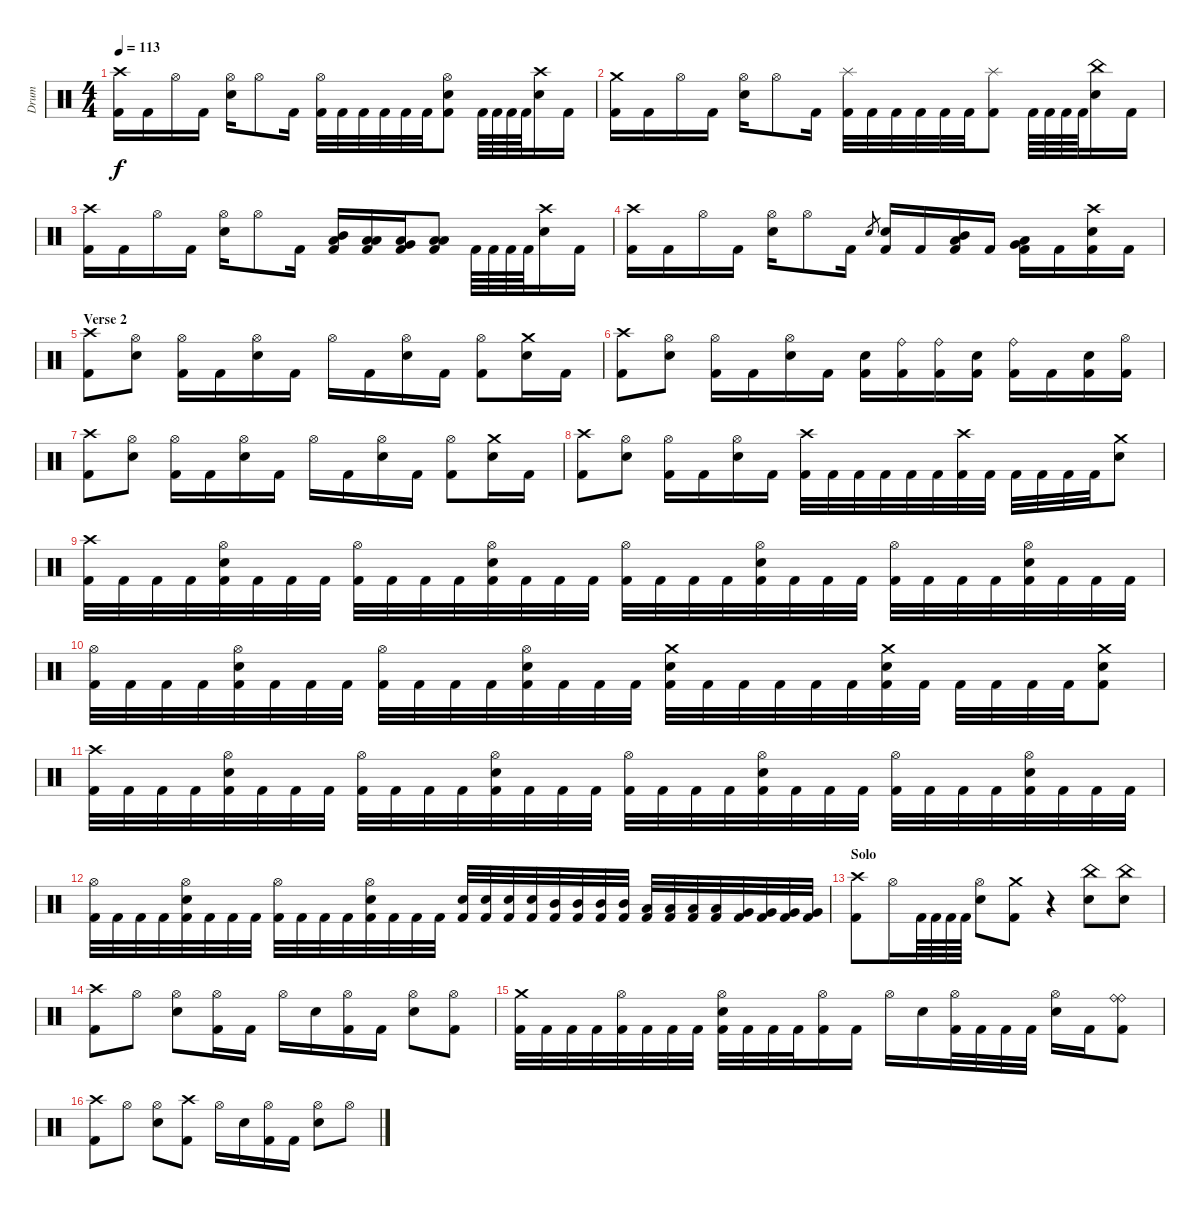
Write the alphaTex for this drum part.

\track ("Drum" "Drum") {instrument percussion}
\staff {score}
\articulation defaults
\ts (4 4)
\tempo 113
\clef neutral
\ks c
("Crash high (hit)" "Kick (hit) 2").16{dy f} "Kick (hit) 2".16 "Hi-Hat (open)".16 "Kick (hit) 2".16 ("Hi-Hat (open)" "Electric Snare (hit)").16 "Hi-Hat (open)".8 "Kick (hit) 2".16 ("Hi-Hat (open)" "Kick (hit) 2").32 "Kick (hit) 2".32 "Kick (hit) 2".32 "Kick (hit) 2".32 "Kick (hit) 2".32 "Kick (hit) 2".32 ("Hi-Hat (open)" "Electric Snare (hit)" "Kick (hit) 2").8 "Kick (hit) 2".64 "Kick (hit) 2".64 "Kick (hit) 2".64 "Kick (hit) 2".64 ("Crash high (hit)" "Electric Snare (hit)").16 "Kick (hit) 2".16 |
("Crash medium (hit)" "Kick (hit) 2").16 "Kick (hit) 2".16 "Hi-Hat (open)".16 "Kick (hit) 2".16 ("Hi-Hat (open)" "Electric Snare (hit)").16 "Hi-Hat (open)".8 "Kick (hit) 2".16 ("Splash (hit)" "Kick (hit) 2").32 "Kick (hit) 2".32 "Kick (hit) 2".32 "Kick (hit) 2".32 "Kick (hit) 2".32 "Kick (hit) 2".32 ("Splash (hit)" "Kick (hit) 2").8 "Kick (hit) 2".64 "Kick (hit) 2".64 "Kick (hit) 2".64 "Kick (hit) 2".64 ("China (hit)" "Electric Snare (hit)").16 "Kick (hit) 2".16 |
("Crash high (hit)" "Kick (hit) 2").16 "Kick (hit) 2".16 "Hi-Hat (open)".16 "Kick (hit) 2".16 ("Hi-Hat (open)" "Electric Snare (hit)").16 "Hi-Hat (open)".8 "Kick (hit) 2".16 ("Mid Tom (hit)" "Low Floor Tom (hit)" "Kick (hit) 2").16 ("Low Tom (hit)" "Low Floor Tom (hit)" "Kick (hit) 2").16 ("Very Low Tom (hit)" "Low Floor Tom (hit)" "Kick (hit) 2").16 ("Low Floor Tom (hit)" "Low Floor Tom (hit)" "Kick (hit) 2").8 "Kick (hit) 2".64 "Kick (hit) 2".64 "Kick (hit) 2".64 "Kick (hit) 2".64 ("Crash high (hit)" "Electric Snare (hit)").16 "Kick (hit) 2".16 |
("Crash high (hit)" "Kick (hit) 2").16 "Kick (hit) 2".16 "Hi-Hat (open)".16 "Kick (hit) 2".16 ("Hi-Hat (open)" "Electric Snare (hit)").16 "Hi-Hat (open)".8 "Kick (hit) 2".16 "Electric Snare (hit)".8{gr} ("Electric Snare (hit)" "Kick (hit) 2").16 "Kick (hit) 2".16 ("Mid Tom (hit)" "Low Floor Tom (hit)" "Kick (hit) 2").16 "Kick (hit) 2".16 ("Very Low Tom (hit)" "Low Floor Tom (hit)" "Kick (hit) 2").16 "Kick (hit) 2".16 ("Crash high (hit)" "Electric Snare (hit)" "Kick (hit) 2").16 "Kick (hit) 2".16 |
\section ("" "Verse 2")
("Crash high (hit)" "Kick (hit) 2").8 ("Hi-Hat (open)" "Electric Snare (hit)").8 ("Hi-Hat (open)" "Kick (hit) 2").16 "Kick (hit) 2".16 ("Hi-Hat (open)" "Electric Snare (hit)").16 "Kick (hit) 2".16 "Hi-Hat (open)".16 "Kick (hit) 2".16 ("Hi-Hat (open)" "Electric Snare (hit)").16 "Kick (hit) 2".16 ("Hi-Hat (open)" "Kick (hit) 2").8 ("Crash medium (hit)" "Electric Snare (hit)").16 "Kick (hit) 2".16 |
("Crash high (hit)" "Kick (hit) 2").8 ("Hi-Hat (open)" "Electric Snare (hit)").8 ("Hi-Hat (open)" "Kick (hit) 2").16 "Kick (hit) 2".16 ("Hi-Hat (open)" "Electric Snare (hit)").16 "Kick (hit) 2".16 ("Electric Snare (hit)" "Kick (hit) 2").16 ("Ride (bell)" "Kick (hit) 2").16 ("Ride (bell)" "Kick (hit) 2").16 ("Electric Snare (hit)" "Kick (hit) 2").16 ("Ride (bell)" "Kick (hit) 2").16 "Kick (hit) 2".16 ("Electric Snare (hit)" "Kick (hit) 2").16 ("Hi-Hat (open)" "Kick (hit) 2").16 |
("Crash high (hit)" "Kick (hit) 2").8 ("Hi-Hat (open)" "Electric Snare (hit)").8 ("Hi-Hat (open)" "Kick (hit) 2").16 "Kick (hit) 2".16 ("Hi-Hat (open)" "Electric Snare (hit)").16 "Kick (hit) 2".16 "Hi-Hat (open)".16 "Kick (hit) 2".16 ("Hi-Hat (open)" "Electric Snare (hit)").16 "Kick (hit) 2".16 ("Hi-Hat (open)" "Kick (hit) 2").8 ("Crash medium (hit)" "Electric Snare (hit)").16 "Kick (hit) 2".16 |
("Crash high (hit)" "Kick (hit) 2").8 ("Hi-Hat (open)" "Electric Snare (hit)").8 ("Hi-Hat (open)" "Kick (hit) 2").16 "Kick (hit) 2".16 ("Hi-Hat (open)" "Electric Snare (hit)").16 "Kick (hit) 2".16 ("Crash high (hit)" "Kick (hit) 2").32 "Kick (hit) 2".32 "Kick (hit) 2".32 "Kick (hit) 2".32 "Kick (hit) 2".32 "Kick (hit) 2".32 ("Crash high (hit)" "Kick (hit) 2").32 "Kick (hit) 2".32 "Kick (hit) 2".32 "Kick (hit) 2".32 "Kick (hit) 2".32 "Kick (hit) 2".32 ("Crash medium (hit)" "Electric Snare (hit)").8 |
("Crash high (hit)" "Kick (hit) 2").32 "Kick (hit) 2".32 "Kick (hit) 2".32 "Kick (hit) 2".32 ("Hi-Hat (open)" "Electric Snare (hit)" "Kick (hit) 2").32 "Kick (hit) 2".32 "Kick (hit) 2".32 "Kick (hit) 2".32 ("Hi-Hat (open)" "Kick (hit) 2").32 "Kick (hit) 2".32 "Kick (hit) 2".32 "Kick (hit) 2".32 ("Hi-Hat (open)" "Electric Snare (hit)" "Kick (hit) 2").32 "Kick (hit) 2".32 "Kick (hit) 2".32 "Kick (hit) 2".32 ("Hi-Hat (open)" "Kick (hit) 2").32 "Kick (hit) 2".32 "Kick (hit) 2".32 "Kick (hit) 2".32 ("Hi-Hat (open)" "Electric Snare (hit)" "Kick (hit) 2").32 "Kick (hit) 2".32 "Kick (hit) 2".32 "Kick (hit) 2".32 ("Hi-Hat (open)" "Kick (hit) 2").32 "Kick (hit) 2".32 "Kick (hit) 2".32 "Kick (hit) 2".32 ("Hi-Hat (open)" "Electric Snare (hit)" "Kick (hit) 2").32 "Kick (hit) 2".32 "Kick (hit) 2".32 "Kick (hit) 2".32 |
("Hi-Hat (open)" "Kick (hit) 2").32 "Kick (hit) 2".32 "Kick (hit) 2".32 "Kick (hit) 2".32 ("Hi-Hat (open)" "Electric Snare (hit)" "Kick (hit) 2").32 "Kick (hit) 2".32 "Kick (hit) 2".32 "Kick (hit) 2".32 ("Hi-Hat (open)" "Kick (hit) 2").32 "Kick (hit) 2".32 "Kick (hit) 2".32 "Kick (hit) 2".32 ("Hi-Hat (open)" "Electric Snare (hit)" "Kick (hit) 2").32 "Kick (hit) 2".32 "Kick (hit) 2".32 "Kick (hit) 2".32 ("Crash medium (hit)" "Electric Snare (hit)" "Kick (hit) 2").32 "Kick (hit) 2".32 "Kick (hit) 2".32 "Kick (hit) 2".32 "Kick (hit) 2".32 "Kick (hit) 2".32 ("Crash medium (hit)" "Electric Snare (hit)" "Kick (hit) 2").32 "Kick (hit) 2".32 "Kick (hit) 2".32 "Kick (hit) 2".32 "Kick (hit) 2".32 "Kick (hit) 2".32 ("Crash medium (hit)" "Electric Snare (hit)" "Kick (hit) 2").8 |
("Crash high (hit)" "Kick (hit) 2").32 "Kick (hit) 2".32 "Kick (hit) 2".32 "Kick (hit) 2".32 ("Hi-Hat (open)" "Electric Snare (hit)" "Kick (hit) 2").32 "Kick (hit) 2".32 "Kick (hit) 2".32 "Kick (hit) 2".32 ("Hi-Hat (open)" "Kick (hit) 2").32 "Kick (hit) 2".32 "Kick (hit) 2".32 "Kick (hit) 2".32 ("Hi-Hat (open)" "Electric Snare (hit)" "Kick (hit) 2").32 "Kick (hit) 2".32 "Kick (hit) 2".32 "Kick (hit) 2".32 ("Hi-Hat (open)" "Kick (hit) 2").32 "Kick (hit) 2".32 "Kick (hit) 2".32 "Kick (hit) 2".32 ("Hi-Hat (open)" "Electric Snare (hit)" "Kick (hit) 2").32 "Kick (hit) 2".32 "Kick (hit) 2".32 "Kick (hit) 2".32 ("Hi-Hat (open)" "Kick (hit) 2").32 "Kick (hit) 2".32 "Kick (hit) 2".32 "Kick (hit) 2".32 ("Hi-Hat (open)" "Electric Snare (hit)" "Kick (hit) 2").32 "Kick (hit) 2".32 "Kick (hit) 2".32 "Kick (hit) 2".32 |
("Hi-Hat (open)" "Kick (hit) 2").32 "Kick (hit) 2".32 "Kick (hit) 2".32 "Kick (hit) 2".32 ("Hi-Hat (open)" "Electric Snare (hit)" "Kick (hit) 2").32 "Kick (hit) 2".32 "Kick (hit) 2".32 "Kick (hit) 2".32 ("Hi-Hat (open)" "Kick (hit) 2").32 "Kick (hit) 2".32 "Kick (hit) 2".32 "Kick (hit) 2".32 ("Hi-Hat (open)" "Electric Snare (hit)" "Kick (hit) 2").32 "Kick (hit) 2".32 "Kick (hit) 2".32 "Kick (hit) 2".32 ("Electric Snare (hit)" "Kick (hit) 2").32 ("Electric Snare (hit)" "Kick (hit) 2").32 ("Electric Snare (hit)" "Kick (hit) 2").32 ("Electric Snare (hit)" "Kick (hit) 2").32 ("Mid Tom (hit)" "Kick (hit) 2").32 ("Mid Tom (hit)" "Kick (hit) 2").32 ("Mid Tom (hit)" "Kick (hit) 2").32 ("Mid Tom (hit)" "Kick (hit) 2").32 ("Low Tom (hit)" "Kick (hit) 2").32 ("Low Tom (hit)" "Kick (hit) 2").32 ("Low Tom (hit)" "Kick (hit) 2").32 ("Low Tom (hit)" "Kick (hit) 2").32 ("Very Low Tom (hit)" "Kick (hit) 2").32 ("Very Low Tom (hit)" "Kick (hit) 2").32 ("Very Low Tom (hit)" "Kick (hit) 2").32 ("Very Low Tom (hit)" "Kick (hit) 2").32 |
\section ("" "Solo")
("Crash high (hit)" "Kick (hit) 2").8 "Hi-Hat (open)".16 "Kick (hit) 2".64 "Kick (hit) 2".64 "Kick (hit) 2".64 "Kick (hit) 2".64 ("Hi-Hat (open)" "Electric Snare (hit)").8 ("Crash medium (hit)" "Kick (hit) 2").8 r.4 ("China (hit)" "Electric Snare (hit)").8 ("China (hit)" "Electric Snare (hit)").8 |
("Crash high (hit)" "Kick (hit) 2").8 "Hi-Hat (open)".8 ("Hi-Hat (open)" "Electric Snare (hit)").8 ("Hi-Hat (open)" "Kick (hit) 2").16 "Kick (hit) 2".16 "Hi-Hat (open)".16 "Electric Snare (hit)".16 ("Hi-Hat (open)" "Kick (hit) 2").16 "Kick (hit) 2".16 ("Hi-Hat (open)" "Electric Snare (hit)").8 ("Hi-Hat (open)" "Kick (hit) 2").8 |
("Crash medium (hit)" "Kick (hit) 2").32 "Kick (hit) 2".32 "Kick (hit) 2".32 "Kick (hit) 2".32 ("Hi-Hat (open)" "Kick (hit) 2").32 "Kick (hit) 2".32 "Kick (hit) 2".32 "Kick (hit) 2".32 ("Hi-Hat (open)" "Electric Snare (hit)" "Kick (hit) 2").32 "Kick (hit) 2".32 "Kick (hit) 2".32 "Kick (hit) 2".32 ("Hi-Hat (open)" "Kick (hit) 2").16 "Kick (hit) 2".16 "Hi-Hat (open)".16 "Electric Snare (hit)".16 ("Hi-Hat (open)" "Kick (hit) 2").32 "Kick (hit) 2".32 "Kick (hit) 2".32 "Kick (hit) 2".32 ("Hi-Hat (open)" "Electric Snare (hit)").16 "Kick (hit) 2".16 ("Ride (bell)" "Ride (bell)" "Kick (hit) 2").8 |
("Crash high (hit)" "Kick (hit) 2").8 "Hi-Hat (open)".8 ("Hi-Hat (open)" "Electric Snare (hit)").8 ("Crash high (hit)" "Kick (hit) 2").8 "Hi-Hat (open)".16 "Electric Snare (hit)".16 ("Hi-Hat (open)" "Kick (hit) 2").16 "Kick (hit) 2".16 ("Hi-Hat (open)" "Electric Snare (hit)").8 "Hi-Hat (open)".8
